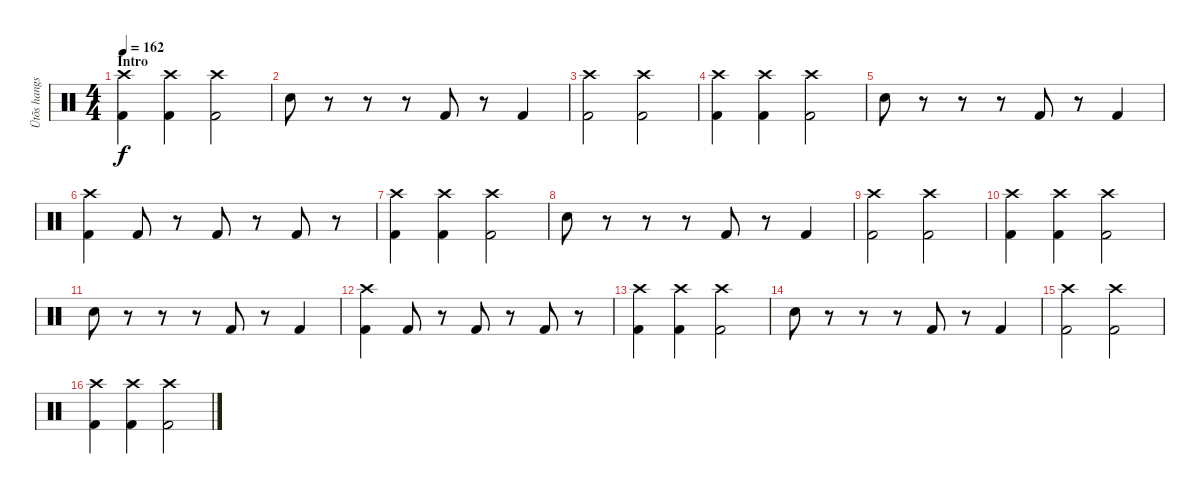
\track ("Ütõs hangszer" "Ütõs hangs") {instrument percussion}
\staff {score}
\articulation defaults
\ts (4 4)
\section ("" "Intro")
\tempo 162
\clef neutral
\ks c
("Kick (hit) 2" "Crash high (hit)").4{dy f} ("Kick (hit) 2" "Crash high (hit)").4 ("Kick (hit) 2" "Crash high (hit)").2 |
"Snare (hit) 2".8 r.8 r.8 r.8 "Kick (hit) 2".8 r.8 "Kick (hit) 2".4 |
("Kick (hit) 2" "Crash high (hit)").2 ("Kick (hit) 2" "Crash high (hit)").2 |
("Kick (hit) 2" "Crash high (hit)").4 ("Kick (hit) 2" "Crash high (hit)").4 ("Kick (hit) 2" "Crash high (hit)").2 |
"Snare (hit) 2".8 r.8 r.8 r.8 "Kick (hit) 2".8 r.8 "Kick (hit) 2".4 |
("Kick (hit) 2" "Crash high (hit)").4 "Kick (hit) 2".8 r.8 "Kick (hit) 2".8 r.8 "Kick (hit) 2".8 r.8 |
("Kick (hit) 2" "Crash high (hit)").4 ("Kick (hit) 2" "Crash high (hit)").4 ("Kick (hit) 2" "Crash high (hit)").2 |
"Snare (hit) 2".8 r.8 r.8 r.8 "Kick (hit) 2".8 r.8 "Kick (hit) 2".4 |
("Kick (hit) 2" "Crash high (hit)").2 ("Kick (hit) 2" "Crash high (hit)").2 |
("Kick (hit) 2" "Crash high (hit)").4 ("Kick (hit) 2" "Crash high (hit)").4 ("Kick (hit) 2" "Crash high (hit)").2 |
"Snare (hit) 2".8 r.8 r.8 r.8 "Kick (hit) 2".8 r.8 "Kick (hit) 2".4 |
("Kick (hit) 2" "Crash high (hit)").4 "Kick (hit) 2".8 r.8 "Kick (hit) 2".8 r.8 "Kick (hit) 2".8 r.8 |
("Kick (hit) 2" "Crash high (hit)").4 ("Kick (hit) 2" "Crash high (hit)").4 ("Kick (hit) 2" "Crash high (hit)").2 |
"Snare (hit) 2".8 r.8 r.8 r.8 "Kick (hit) 2".8 r.8 "Kick (hit) 2".4 |
("Kick (hit) 2" "Crash high (hit)").2 ("Kick (hit) 2" "Crash high (hit)").2 |
("Kick (hit) 2" "Crash high (hit)").4 ("Kick (hit) 2" "Crash high (hit)").4 ("Kick (hit) 2" "Crash high (hit)").2
